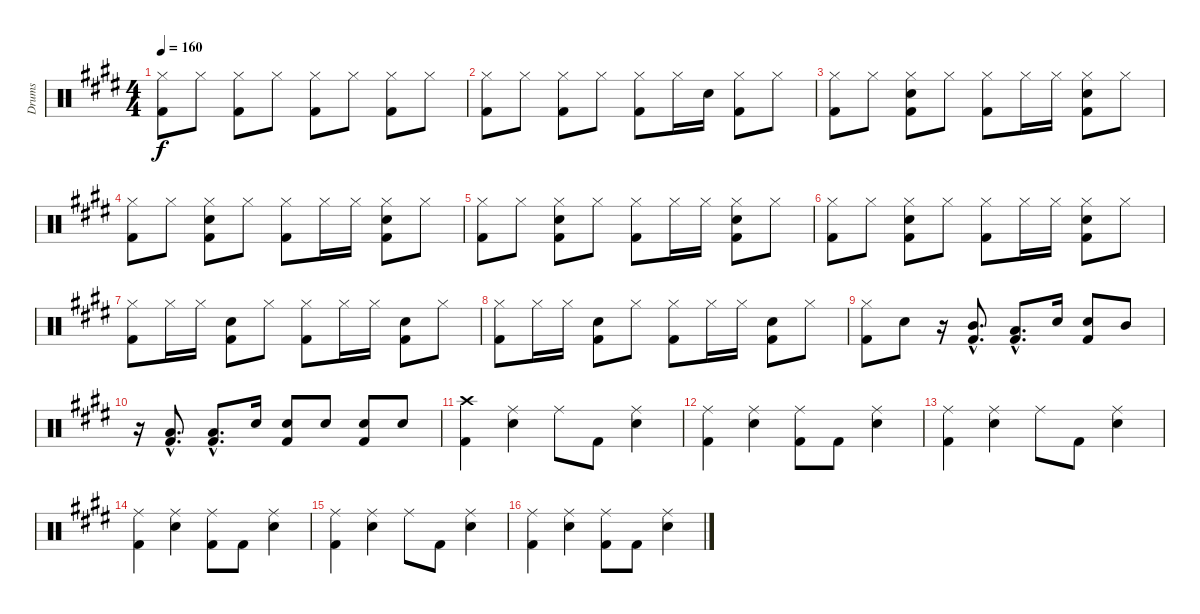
\track ("Drums" "Drums") {instrument percussion}
\staff {score}
\articulation defaults
\ts (4 4)
\tempo 160
\clef neutral
\ks e
("Hi-Hat (closed)" "Kick (hit) 2").8{dy f} "Hi-Hat (closed)".8 ("Hi-Hat (closed)" "Kick (hit) 2").8 "Hi-Hat (closed)".8 ("Hi-Hat (closed)" "Kick (hit) 2").8 "Hi-Hat (closed)".8 ("Hi-Hat (closed)" "Kick (hit) 2").8 "Hi-Hat (closed)".8 |
("Hi-Hat (closed)" "Kick (hit) 2").8 "Hi-Hat (closed)".8 ("Hi-Hat (closed)" "Kick (hit) 2").8 "Hi-Hat (closed)".8 ("Hi-Hat (closed)" "Kick (hit) 2").8 "Hi-Hat (closed)".16 "Electric Snare (hit)".16 ("Hi-Hat (closed)" "Kick (hit) 2").8 "Hi-Hat (closed)".8 |
("Hi-Hat (closed)" "Kick (hit) 2").8 "Hi-Hat (closed)".8 ("Hi-Hat (closed)" "Electric Snare (hit)" "Kick (hit) 2").8 "Hi-Hat (closed)".8 ("Hi-Hat (closed)" "Kick (hit) 2").8 "Hi-Hat (closed)".16 "Hi-Hat (closed)".16 ("Hi-Hat (closed)" "Electric Snare (hit)" "Kick (hit) 2").8 "Hi-Hat (closed)".8 |
("Hi-Hat (closed)" "Kick (hit) 2").8 "Hi-Hat (closed)".8 ("Hi-Hat (closed)" "Electric Snare (hit)" "Kick (hit) 2").8 "Hi-Hat (closed)".8 ("Hi-Hat (closed)" "Kick (hit) 2").8 "Hi-Hat (closed)".16 "Hi-Hat (closed)".16 ("Hi-Hat (closed)" "Electric Snare (hit)" "Kick (hit) 2").8 "Hi-Hat (closed)".8 |
("Hi-Hat (closed)" "Kick (hit) 2").8 "Hi-Hat (closed)".8 ("Hi-Hat (closed)" "Electric Snare (hit)" "Kick (hit) 2").8 "Hi-Hat (closed)".8 ("Hi-Hat (closed)" "Kick (hit) 2").8 "Hi-Hat (closed)".16 "Hi-Hat (closed)".16 ("Hi-Hat (closed)" "Electric Snare (hit)" "Kick (hit) 2").8 "Hi-Hat (closed)".8 |
("Hi-Hat (closed)" "Kick (hit) 2").8 "Hi-Hat (closed)".8 ("Hi-Hat (closed)" "Electric Snare (hit)" "Kick (hit) 2").8 "Hi-Hat (closed)".8 ("Hi-Hat (closed)" "Kick (hit) 2").8 "Hi-Hat (closed)".16 "Hi-Hat (closed)".16 ("Hi-Hat (closed)" "Electric Snare (hit)" "Kick (hit) 2").8 "Hi-Hat (closed)".8 |
("Hi-Hat (closed)" "Kick (hit) 2").8 "Hi-Hat (closed)".16 "Hi-Hat (closed)".16 ("Electric Snare (hit)" "Kick (hit) 2").8 "Hi-Hat (closed)".8 ("Hi-Hat (closed)" "Kick (hit) 2").8 "Hi-Hat (closed)".16 "Hi-Hat (closed)".16 ("Electric Snare (hit)" "Kick (hit) 2").8 "Hi-Hat (closed)".8 |
("Hi-Hat (closed)" "Kick (hit) 2").8 "Hi-Hat (closed)".16 "Hi-Hat (closed)".16 ("Electric Snare (hit)" "Kick (hit) 2").8 "Hi-Hat (closed)".8 ("Hi-Hat (closed)" "Kick (hit) 2").8 "Hi-Hat (closed)".16 "Hi-Hat (closed)".16 ("Electric Snare (hit)" "Kick (hit) 2").8 "Hi-Hat (closed)".8 |
("Hi-Hat (closed)" "Kick (hit) 2").8 "Electric Snare (hit)".8 r.16 ("Mid Tom (hit)"{hac} "Kick (hit) 2"{hac}).8{d} ("Low Tom (hit)"{hac} "Kick (hit) 2"{hac}).8{d} "Electric Snare (hit)".16 ("Electric Snare (hit)" "Kick (hit) 2").8 "Mid Tom (hit)".8 |
r.16 ("Low Tom (hit)"{hac} "Kick (hit) 2"{hac}).8{d} ("Low Tom (hit)"{hac} "Kick (hit) 2"{hac}).8{d} "Electric Snare (hit)".16 ("Electric Snare (hit)" "Kick (hit) 2").8 "Electric Snare (hit)".8 ("Electric Snare (hit)" "Kick (hit) 2").8 "Electric Snare (hit)".8 |
("Crash high (hit)" "Kick (hit) 2").4 ("Ride (middle)" "Electric Snare (hit)").4 "Ride (middle)".8 "Kick (hit) 2".8 ("Ride (middle)" "Electric Snare (hit)").4 |
("Ride (middle)" "Kick (hit) 2").4 ("Ride (middle)" "Electric Snare (hit)").4 ("Ride (middle)" "Kick (hit) 2").8 "Kick (hit) 2".8 ("Ride (middle)" "Electric Snare (hit)").4 |
("Ride (middle)" "Kick (hit) 2").4 ("Ride (middle)" "Electric Snare (hit)").4 "Ride (middle)".8 "Kick (hit) 2".8 ("Ride (middle)" "Electric Snare (hit)").4 |
("Ride (middle)" "Kick (hit) 2").4 ("Ride (middle)" "Electric Snare (hit)").4 ("Ride (middle)" "Kick (hit) 2").8 "Kick (hit) 2".8 ("Ride (middle)" "Electric Snare (hit)").4 |
("Ride (middle)" "Kick (hit) 2").4 ("Ride (middle)" "Electric Snare (hit)").4 "Ride (middle)".8 "Kick (hit) 2".8 ("Ride (middle)" "Electric Snare (hit)").4 |
("Ride (middle)" "Kick (hit) 2").4 ("Ride (middle)" "Electric Snare (hit)").4 ("Ride (middle)" "Kick (hit) 2").8 "Kick (hit) 2".8 ("Ride (middle)" "Electric Snare (hit)").4
